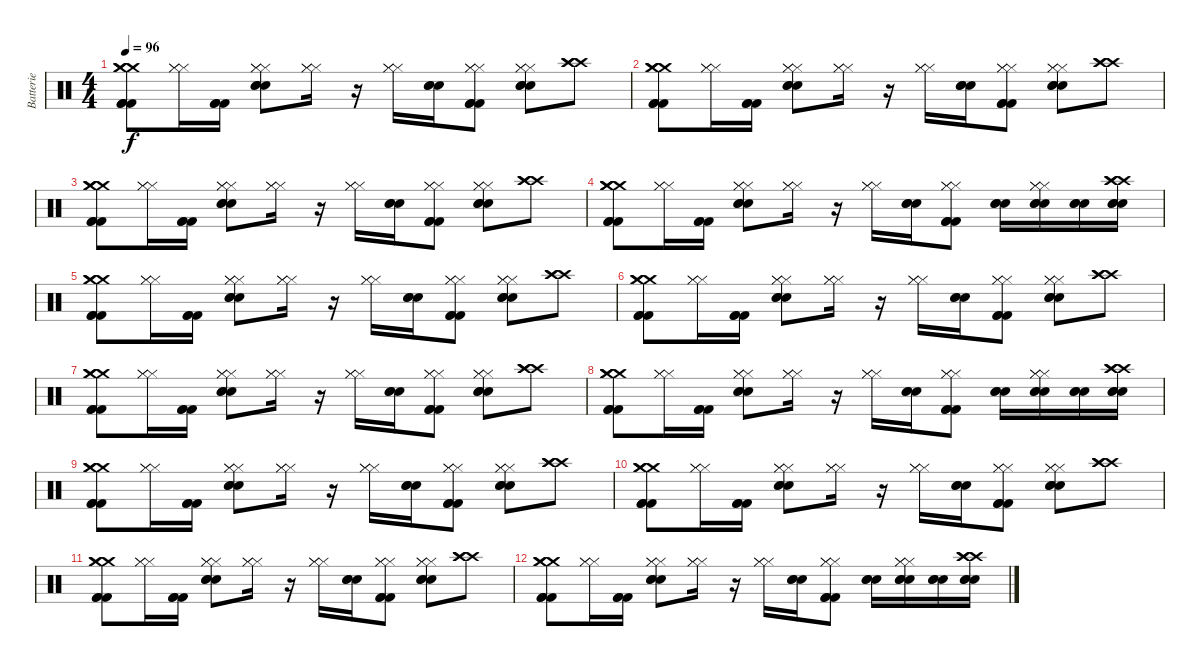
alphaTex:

\track ("Batterie" "Batterie") {instrument percussion}
\staff {score}
\articulation defaults
\ts (4 4)
\tempo 96
\clef neutral
\ks c
("Crash medium (hit)" "Crash medium (hit)" "Crash medium (hit)" "Kick (hit) 2" "Kick (hit) 2" "Kick (hit) 2").8{dy f} ("Hi-Hat (closed)" "Hi-Hat (closed)" "Hi-Hat (closed)").16 ("Kick (hit) 2" "Kick (hit) 2" "Kick (hit) 2").16 ("Hi-Hat (closed)" "Hi-Hat (closed)" "Hi-Hat (closed)" "Electric Snare (hit)" "Electric Snare (hit)" "Electric Snare (hit)").8 ("Hi-Hat (closed)" "Hi-Hat (closed)" "Hi-Hat (closed)").16 r.16 ("Hi-Hat (closed)" "Hi-Hat (closed)" "Hi-Hat (closed)").16 ("Electric Snare (hit)" "Electric Snare (hit)" "Electric Snare (hit)").16 ("Hi-Hat (closed)" "Hi-Hat (closed)" "Hi-Hat (closed)" "Kick (hit) 2" "Kick (hit) 2" "Kick (hit) 2").8 ("Hi-Hat (closed)" "Hi-Hat (closed)" "Hi-Hat (closed)" "Electric Snare (hit)" "Electric Snare (hit)" "Electric Snare (hit)").8 ("Crash high (hit)" "Crash high (hit)" "Crash high (hit)").8 |
("Crash medium (hit)" "Crash medium (hit)" "Crash medium (hit)" "Kick (hit) 2" "Kick (hit) 2" "Kick (hit) 2").8 ("Hi-Hat (closed)" "Hi-Hat (closed)" "Hi-Hat (closed)").16 ("Kick (hit) 2" "Kick (hit) 2" "Kick (hit) 2").16 ("Hi-Hat (closed)" "Hi-Hat (closed)" "Hi-Hat (closed)" "Electric Snare (hit)" "Electric Snare (hit)" "Electric Snare (hit)").8 ("Hi-Hat (closed)" "Hi-Hat (closed)" "Hi-Hat (closed)").16 r.16 ("Hi-Hat (closed)" "Hi-Hat (closed)" "Hi-Hat (closed)").16 ("Electric Snare (hit)" "Electric Snare (hit)" "Electric Snare (hit)").16 ("Hi-Hat (closed)" "Hi-Hat (closed)" "Hi-Hat (closed)" "Kick (hit) 2" "Kick (hit) 2" "Kick (hit) 2").8 ("Hi-Hat (closed)" "Hi-Hat (closed)" "Hi-Hat (closed)" "Electric Snare (hit)" "Electric Snare (hit)" "Electric Snare (hit)").8 ("Crash high (hit)" "Crash high (hit)" "Crash high (hit)").8 |
("Crash medium (hit)" "Crash medium (hit)" "Crash medium (hit)" "Kick (hit) 2" "Kick (hit) 2" "Kick (hit) 2").8 ("Hi-Hat (closed)" "Hi-Hat (closed)" "Hi-Hat (closed)").16 ("Kick (hit) 2" "Kick (hit) 2" "Kick (hit) 2").16 ("Hi-Hat (closed)" "Hi-Hat (closed)" "Hi-Hat (closed)" "Electric Snare (hit)" "Electric Snare (hit)" "Electric Snare (hit)").8 ("Hi-Hat (closed)" "Hi-Hat (closed)" "Hi-Hat (closed)").16 r.16 ("Hi-Hat (closed)" "Hi-Hat (closed)" "Hi-Hat (closed)").16 ("Electric Snare (hit)" "Electric Snare (hit)" "Electric Snare (hit)").16 ("Hi-Hat (closed)" "Hi-Hat (closed)" "Hi-Hat (closed)" "Kick (hit) 2" "Kick (hit) 2" "Kick (hit) 2").8 ("Hi-Hat (closed)" "Hi-Hat (closed)" "Hi-Hat (closed)" "Electric Snare (hit)" "Electric Snare (hit)" "Electric Snare (hit)").8 ("Crash high (hit)" "Crash high (hit)" "Crash high (hit)").8 |
("Crash medium (hit)" "Crash medium (hit)" "Crash medium (hit)" "Kick (hit) 2" "Kick (hit) 2" "Kick (hit) 2").8 ("Hi-Hat (closed)" "Hi-Hat (closed)" "Hi-Hat (closed)").16 ("Kick (hit) 2" "Kick (hit) 2" "Kick (hit) 2").16 ("Hi-Hat (closed)" "Hi-Hat (closed)" "Hi-Hat (closed)" "Electric Snare (hit)" "Electric Snare (hit)" "Electric Snare (hit)").8 ("Hi-Hat (closed)" "Hi-Hat (closed)" "Hi-Hat (closed)").16 r.16 ("Hi-Hat (closed)" "Hi-Hat (closed)" "Hi-Hat (closed)").16 ("Electric Snare (hit)" "Electric Snare (hit)" "Electric Snare (hit)").16 ("Hi-Hat (closed)" "Hi-Hat (closed)" "Hi-Hat (closed)" "Kick (hit) 2" "Kick (hit) 2" "Kick (hit) 2").8 ("Electric Snare (hit)" "Electric Snare (hit)" "Electric Snare (hit)").16 ("Hi-Hat (closed)" "Hi-Hat (closed)" "Hi-Hat (closed)" "Electric Snare (hit)" "Electric Snare (hit)" "Electric Snare (hit)").16 ("Electric Snare (hit)" "Electric Snare (hit)" "Electric Snare (hit)").16 ("Crash high (hit)" "Crash high (hit)" "Crash high (hit)" "Electric Snare (hit)" "Electric Snare (hit)" "Electric Snare (hit)").16 |
("Crash medium (hit)" "Crash medium (hit)" "Crash medium (hit)" "Kick (hit) 2" "Kick (hit) 2" "Kick (hit) 2").8{volume 8} ("Hi-Hat (closed)" "Hi-Hat (closed)" "Hi-Hat (closed)").16 ("Kick (hit) 2" "Kick (hit) 2" "Kick (hit) 2").16 ("Hi-Hat (closed)" "Hi-Hat (closed)" "Hi-Hat (closed)" "Electric Snare (hit)" "Electric Snare (hit)" "Electric Snare (hit)").8 ("Hi-Hat (closed)" "Hi-Hat (closed)" "Hi-Hat (closed)").16 r.16 ("Hi-Hat (closed)" "Hi-Hat (closed)" "Hi-Hat (closed)").16 ("Electric Snare (hit)" "Electric Snare (hit)" "Electric Snare (hit)").16 ("Hi-Hat (closed)" "Hi-Hat (closed)" "Hi-Hat (closed)" "Kick (hit) 2" "Kick (hit) 2" "Kick (hit) 2").8 ("Hi-Hat (closed)" "Hi-Hat (closed)" "Hi-Hat (closed)" "Electric Snare (hit)" "Electric Snare (hit)" "Electric Snare (hit)").8 ("Crash high (hit)" "Crash high (hit)" "Crash high (hit)").8 |
("Crash medium (hit)" "Crash medium (hit)" "Crash medium (hit)" "Kick (hit) 2" "Kick (hit) 2" "Kick (hit) 2").8 ("Hi-Hat (closed)" "Hi-Hat (closed)" "Hi-Hat (closed)").16 ("Kick (hit) 2" "Kick (hit) 2" "Kick (hit) 2").16 ("Hi-Hat (closed)" "Hi-Hat (closed)" "Hi-Hat (closed)" "Electric Snare (hit)" "Electric Snare (hit)" "Electric Snare (hit)").8 ("Hi-Hat (closed)" "Hi-Hat (closed)" "Hi-Hat (closed)").16 r.16 ("Hi-Hat (closed)" "Hi-Hat (closed)" "Hi-Hat (closed)").16 ("Electric Snare (hit)" "Electric Snare (hit)" "Electric Snare (hit)").16 ("Hi-Hat (closed)" "Hi-Hat (closed)" "Hi-Hat (closed)" "Kick (hit) 2" "Kick (hit) 2" "Kick (hit) 2").8 ("Hi-Hat (closed)" "Hi-Hat (closed)" "Hi-Hat (closed)" "Electric Snare (hit)" "Electric Snare (hit)" "Electric Snare (hit)").8 ("Crash high (hit)" "Crash high (hit)" "Crash high (hit)").8 |
("Crash medium (hit)" "Crash medium (hit)" "Crash medium (hit)" "Kick (hit) 2" "Kick (hit) 2" "Kick (hit) 2").8 ("Hi-Hat (closed)" "Hi-Hat (closed)" "Hi-Hat (closed)").16 ("Kick (hit) 2" "Kick (hit) 2" "Kick (hit) 2").16 ("Hi-Hat (closed)" "Hi-Hat (closed)" "Hi-Hat (closed)" "Electric Snare (hit)" "Electric Snare (hit)" "Electric Snare (hit)").8 ("Hi-Hat (closed)" "Hi-Hat (closed)" "Hi-Hat (closed)").16 r.16 ("Hi-Hat (closed)" "Hi-Hat (closed)" "Hi-Hat (closed)").16 ("Electric Snare (hit)" "Electric Snare (hit)" "Electric Snare (hit)").16 ("Hi-Hat (closed)" "Hi-Hat (closed)" "Hi-Hat (closed)" "Kick (hit) 2" "Kick (hit) 2" "Kick (hit) 2").8 ("Hi-Hat (closed)" "Hi-Hat (closed)" "Hi-Hat (closed)" "Electric Snare (hit)" "Electric Snare (hit)" "Electric Snare (hit)").8 ("Crash high (hit)" "Crash high (hit)" "Crash high (hit)").8 |
("Crash medium (hit)" "Crash medium (hit)" "Crash medium (hit)" "Kick (hit) 2" "Kick (hit) 2" "Kick (hit) 2").8 ("Hi-Hat (closed)" "Hi-Hat (closed)" "Hi-Hat (closed)").16 ("Kick (hit) 2" "Kick (hit) 2" "Kick (hit) 2").16 ("Hi-Hat (closed)" "Hi-Hat (closed)" "Hi-Hat (closed)" "Electric Snare (hit)" "Electric Snare (hit)" "Electric Snare (hit)").8 ("Hi-Hat (closed)" "Hi-Hat (closed)" "Hi-Hat (closed)").16 r.16 ("Hi-Hat (closed)" "Hi-Hat (closed)" "Hi-Hat (closed)").16 ("Electric Snare (hit)" "Electric Snare (hit)" "Electric Snare (hit)").16 ("Hi-Hat (closed)" "Hi-Hat (closed)" "Hi-Hat (closed)" "Kick (hit) 2" "Kick (hit) 2" "Kick (hit) 2").8 ("Electric Snare (hit)" "Electric Snare (hit)" "Electric Snare (hit)").16 ("Hi-Hat (closed)" "Hi-Hat (closed)" "Hi-Hat (closed)" "Electric Snare (hit)" "Electric Snare (hit)" "Electric Snare (hit)").16 ("Electric Snare (hit)" "Electric Snare (hit)" "Electric Snare (hit)").16 ("Crash high (hit)" "Crash high (hit)" "Crash high (hit)" "Electric Snare (hit)" "Electric Snare (hit)" "Electric Snare (hit)").16 |
("Crash medium (hit)" "Crash medium (hit)" "Crash medium (hit)" "Kick (hit) 2" "Kick (hit) 2" "Kick (hit) 2").8{volume 8} ("Hi-Hat (closed)" "Hi-Hat (closed)" "Hi-Hat (closed)").16{volume 0} ("Kick (hit) 2" "Kick (hit) 2" "Kick (hit) 2").16 ("Hi-Hat (closed)" "Hi-Hat (closed)" "Hi-Hat (closed)" "Electric Snare (hit)" "Electric Snare (hit)" "Electric Snare (hit)").8 ("Hi-Hat (closed)" "Hi-Hat (closed)" "Hi-Hat (closed)").16 r.16 ("Hi-Hat (closed)" "Hi-Hat (closed)" "Hi-Hat (closed)").16 ("Electric Snare (hit)" "Electric Snare (hit)" "Electric Snare (hit)").16 ("Hi-Hat (closed)" "Hi-Hat (closed)" "Hi-Hat (closed)" "Kick (hit) 2" "Kick (hit) 2" "Kick (hit) 2").8 ("Hi-Hat (closed)" "Hi-Hat (closed)" "Hi-Hat (closed)" "Electric Snare (hit)" "Electric Snare (hit)" "Electric Snare (hit)").8 ("Crash high (hit)" "Crash high (hit)" "Crash high (hit)").8 |
("Crash medium (hit)" "Crash medium (hit)" "Crash medium (hit)" "Kick (hit) 2" "Kick (hit) 2" "Kick (hit) 2").8 ("Hi-Hat (closed)" "Hi-Hat (closed)" "Hi-Hat (closed)").16 ("Kick (hit) 2" "Kick (hit) 2" "Kick (hit) 2").16 ("Hi-Hat (closed)" "Hi-Hat (closed)" "Hi-Hat (closed)" "Electric Snare (hit)" "Electric Snare (hit)" "Electric Snare (hit)").8 ("Hi-Hat (closed)" "Hi-Hat (closed)" "Hi-Hat (closed)").16 r.16 ("Hi-Hat (closed)" "Hi-Hat (closed)" "Hi-Hat (closed)").16 ("Electric Snare (hit)" "Electric Snare (hit)" "Electric Snare (hit)").16 ("Hi-Hat (closed)" "Hi-Hat (closed)" "Hi-Hat (closed)" "Kick (hit) 2" "Kick (hit) 2" "Kick (hit) 2").8 ("Hi-Hat (closed)" "Hi-Hat (closed)" "Hi-Hat (closed)" "Electric Snare (hit)" "Electric Snare (hit)" "Electric Snare (hit)").8 ("Crash high (hit)" "Crash high (hit)" "Crash high (hit)").8 |
("Crash medium (hit)" "Crash medium (hit)" "Crash medium (hit)" "Kick (hit) 2" "Kick (hit) 2" "Kick (hit) 2").8 ("Hi-Hat (closed)" "Hi-Hat (closed)" "Hi-Hat (closed)").16 ("Kick (hit) 2" "Kick (hit) 2" "Kick (hit) 2").16 ("Hi-Hat (closed)" "Hi-Hat (closed)" "Hi-Hat (closed)" "Electric Snare (hit)" "Electric Snare (hit)" "Electric Snare (hit)").8 ("Hi-Hat (closed)" "Hi-Hat (closed)" "Hi-Hat (closed)").16 r.16 ("Hi-Hat (closed)" "Hi-Hat (closed)" "Hi-Hat (closed)").16 ("Electric Snare (hit)" "Electric Snare (hit)" "Electric Snare (hit)").16 ("Hi-Hat (closed)" "Hi-Hat (closed)" "Hi-Hat (closed)" "Kick (hit) 2" "Kick (hit) 2" "Kick (hit) 2").8 ("Hi-Hat (closed)" "Hi-Hat (closed)" "Hi-Hat (closed)" "Electric Snare (hit)" "Electric Snare (hit)" "Electric Snare (hit)").8 ("Crash high (hit)" "Crash high (hit)" "Crash high (hit)").8 |
("Crash medium (hit)" "Crash medium (hit)" "Crash medium (hit)" "Kick (hit) 2" "Kick (hit) 2" "Kick (hit) 2").8 ("Hi-Hat (closed)" "Hi-Hat (closed)" "Hi-Hat (closed)").16 ("Kick (hit) 2" "Kick (hit) 2" "Kick (hit) 2").16 ("Hi-Hat (closed)" "Hi-Hat (closed)" "Hi-Hat (closed)" "Electric Snare (hit)" "Electric Snare (hit)" "Electric Snare (hit)").8 ("Hi-Hat (closed)" "Hi-Hat (closed)" "Hi-Hat (closed)").16 r.16 ("Hi-Hat (closed)" "Hi-Hat (closed)" "Hi-Hat (closed)").16 ("Electric Snare (hit)" "Electric Snare (hit)" "Electric Snare (hit)").16 ("Hi-Hat (closed)" "Hi-Hat (closed)" "Hi-Hat (closed)" "Kick (hit) 2" "Kick (hit) 2" "Kick (hit) 2").8 ("Electric Snare (hit)" "Electric Snare (hit)" "Electric Snare (hit)").16 ("Hi-Hat (closed)" "Hi-Hat (closed)" "Hi-Hat (closed)" "Electric Snare (hit)" "Electric Snare (hit)" "Electric Snare (hit)").16 ("Electric Snare (hit)" "Electric Snare (hit)" "Electric Snare (hit)").16 ("Crash high (hit)" "Crash high (hit)" "Crash high (hit)" "Electric Snare (hit)" "Electric Snare (hit)" "Electric Snare (hit)").16
